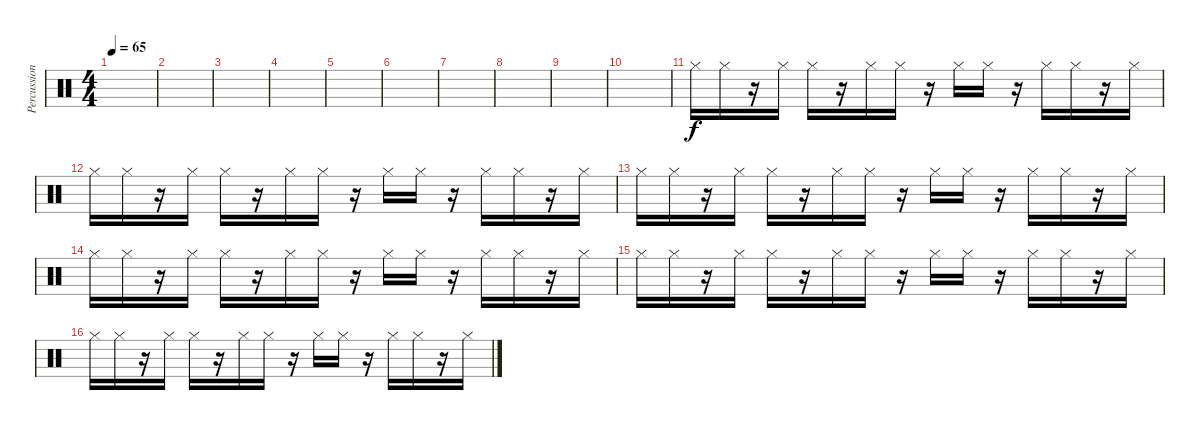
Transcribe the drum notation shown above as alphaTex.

\track ("Percussions" "Percussion") {instrument percussion}
\staff {score}
\articulation defaults
\ts (4 4)
\tempo 65
\clef neutral
\ks c
|
|
|
|
|
|
|
|
|
|
"Hi-Hat (closed)".16{volume 12 balance 0} "Hi-Hat (closed)".16 r.16{balance 2} "Hi-Hat (closed)".16 "Hi-Hat (closed)".16 r.16{balance 4} "Hi-Hat (closed)".16 "Hi-Hat (closed)".16 r.16{balance 6} "Hi-Hat (closed)".16 "Hi-Hat (closed)".16 r.16{volume 12 balance 8} "Hi-Hat (closed)".16 "Hi-Hat (closed)".16 r.16{balance 10} "Hi-Hat (closed)".16 |
"Hi-Hat (closed)".16{volume 12 balance 12} "Hi-Hat (closed)".16 r.16{balance 14} "Hi-Hat (closed)".16 "Hi-Hat (closed)".16 r.16{balance 16} "Hi-Hat (closed)".16 "Hi-Hat (closed)".16 r.16{balance 6} "Hi-Hat (closed)".16 "Hi-Hat (closed)".16 r.16{volume 12 balance 8} "Hi-Hat (closed)".16 "Hi-Hat (closed)".16 r.16{balance 10} "Hi-Hat (closed)".16 |
"Hi-Hat (closed)".16{volume 12 balance 12} "Hi-Hat (closed)".16 r.16{balance 14} "Hi-Hat (closed)".16 "Hi-Hat (closed)".16 r.16{balance 16} "Hi-Hat (closed)".16 "Hi-Hat (closed)".16 r.16{balance 6} "Hi-Hat (closed)".16 "Hi-Hat (closed)".16 r.16{volume 12 balance 8} "Hi-Hat (closed)".16 "Hi-Hat (closed)".16 r.16{balance 10} "Hi-Hat (closed)".16 |
"Hi-Hat (closed)".16{volume 12 balance 0} "Hi-Hat (closed)".16 r.16{balance 2} "Hi-Hat (closed)".16 "Hi-Hat (closed)".16 r.16{balance 4} "Hi-Hat (closed)".16 "Hi-Hat (closed)".16 r.16{balance 6} "Hi-Hat (closed)".16 "Hi-Hat (closed)".16 r.16{volume 12 balance 8} "Hi-Hat (closed)".16 "Hi-Hat (closed)".16 r.16{balance 10} "Hi-Hat (closed)".16 |
"Hi-Hat (closed)".16{volume 12 balance 0} "Hi-Hat (closed)".16 r.16{balance 2} "Hi-Hat (closed)".16 "Hi-Hat (closed)".16 r.16{balance 4} "Hi-Hat (closed)".16 "Hi-Hat (closed)".16 r.16{balance 6} "Hi-Hat (closed)".16 "Hi-Hat (closed)".16 r.16{volume 12 balance 8} "Hi-Hat (closed)".16 "Hi-Hat (closed)".16 r.16{balance 10} "Hi-Hat (closed)".16 |
"Hi-Hat (closed)".16{volume 12 balance 0} "Hi-Hat (closed)".16 r.16{balance 2} "Hi-Hat (closed)".16 "Hi-Hat (closed)".16 r.16{balance 4} "Hi-Hat (closed)".16 "Hi-Hat (closed)".16 r.16{balance 6} "Hi-Hat (closed)".16 "Hi-Hat (closed)".16 r.16{volume 12 balance 8} "Hi-Hat (closed)".16 "Hi-Hat (closed)".16 r.16{balance 10} "Hi-Hat (closed)".16
